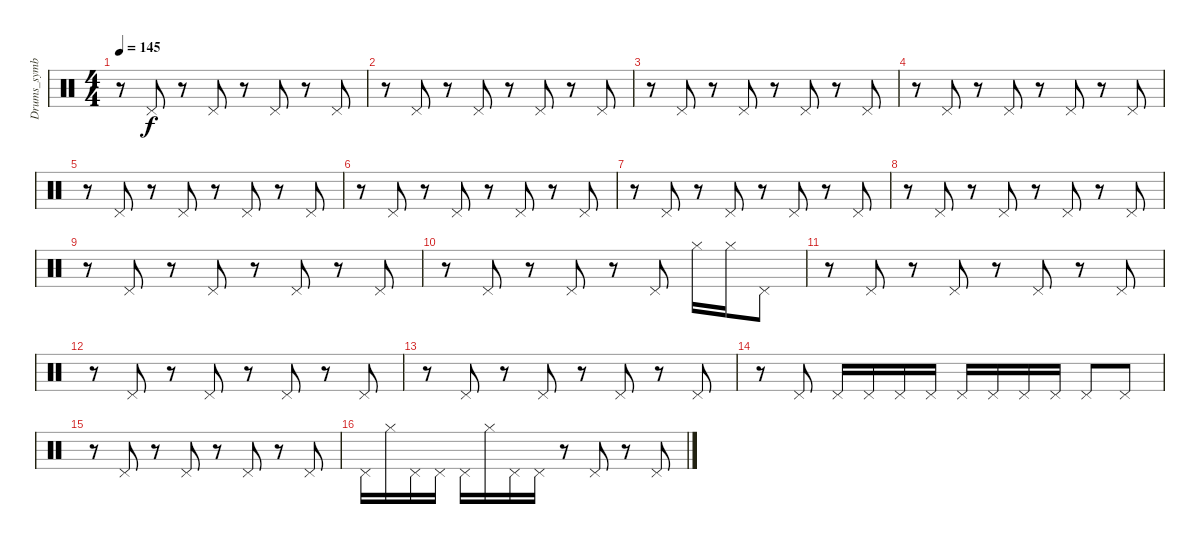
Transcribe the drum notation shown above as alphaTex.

\track ("Drums_symbal" "Drums_symb") {instrument percussion}
\staff {score}
\articulation defaults
\ts (4 4)
\tempo 145
\clef neutral
\ks c
r.8{dy f} "Pedal Hi-Hat (hit)".8 r.8 "Pedal Hi-Hat (hit)".8 r.8 "Pedal Hi-Hat (hit)".8 r.8 "Pedal Hi-Hat (hit)".8 |
r.8 "Pedal Hi-Hat (hit)".8 r.8 "Pedal Hi-Hat (hit)".8 r.8 "Pedal Hi-Hat (hit)".8 r.8 "Pedal Hi-Hat (hit)".8 |
r.8 "Pedal Hi-Hat (hit)".8 r.8 "Pedal Hi-Hat (hit)".8 r.8 "Pedal Hi-Hat (hit)".8 r.8 "Pedal Hi-Hat (hit)".8 |
r.8 "Pedal Hi-Hat (hit)".8 r.8 "Pedal Hi-Hat (hit)".8 r.8 "Pedal Hi-Hat (hit)".8 r.8 "Pedal Hi-Hat (hit)".8 |
r.8 "Pedal Hi-Hat (hit)".8 r.8 "Pedal Hi-Hat (hit)".8 r.8 "Pedal Hi-Hat (hit)".8 r.8 "Pedal Hi-Hat (hit)".8 |
r.8 "Pedal Hi-Hat (hit)".8 r.8 "Pedal Hi-Hat (hit)".8 r.8 "Pedal Hi-Hat (hit)".8 r.8 "Pedal Hi-Hat (hit)".8 |
r.8 "Pedal Hi-Hat (hit)".8 r.8 "Pedal Hi-Hat (hit)".8 r.8 "Pedal Hi-Hat (hit)".8 r.8 "Pedal Hi-Hat (hit)".8 |
r.8 "Pedal Hi-Hat (hit)".8 r.8 "Pedal Hi-Hat (hit)".8 r.8 "Pedal Hi-Hat (hit)".8 r.8 "Pedal Hi-Hat (hit)".8 |
r.8 "Pedal Hi-Hat (hit)".8 r.8 "Pedal Hi-Hat (hit)".8 r.8 "Pedal Hi-Hat (hit)".8 r.8 "Pedal Hi-Hat (hit)".8 |
r.8 "Pedal Hi-Hat (hit)".8 r.8 "Pedal Hi-Hat (hit)".8 r.8 "Pedal Hi-Hat (hit)".8 "Hi-Hat (closed)".16 "Hi-Hat (closed)".16 "Pedal Hi-Hat (hit)".8 |
r.8 "Pedal Hi-Hat (hit)".8 r.8 "Pedal Hi-Hat (hit)".8 r.8 "Pedal Hi-Hat (hit)".8 r.8 "Pedal Hi-Hat (hit)".8 |
r.8 "Pedal Hi-Hat (hit)".8 r.8 "Pedal Hi-Hat (hit)".8 r.8 "Pedal Hi-Hat (hit)".8 r.8 "Pedal Hi-Hat (hit)".8 |
r.8 "Pedal Hi-Hat (hit)".8 r.8 "Pedal Hi-Hat (hit)".8 r.8 "Pedal Hi-Hat (hit)".8 r.8 "Pedal Hi-Hat (hit)".8 |
r.8 "Pedal Hi-Hat (hit)".8 "Pedal Hi-Hat (hit)".16 "Pedal Hi-Hat (hit)".16 "Pedal Hi-Hat (hit)".16 "Pedal Hi-Hat (hit)".16 "Pedal Hi-Hat (hit)".16 "Pedal Hi-Hat (hit)".16 "Pedal Hi-Hat (hit)".16 "Pedal Hi-Hat (hit)".16 "Pedal Hi-Hat (hit)".8 "Pedal Hi-Hat (hit)".8 |
r.8 "Pedal Hi-Hat (hit)".8 r.8 "Pedal Hi-Hat (hit)".8 r.8 "Pedal Hi-Hat (hit)".8 r.8 "Pedal Hi-Hat (hit)".8 |
"Pedal Hi-Hat (hit)".16 "Hi-Hat (closed)".16 "Pedal Hi-Hat (hit)".16 "Pedal Hi-Hat (hit)".16 "Pedal Hi-Hat (hit)".16 "Hi-Hat (closed)".16 "Pedal Hi-Hat (hit)".16 "Pedal Hi-Hat (hit)".16 r.8 "Pedal Hi-Hat (hit)".8 r.8 "Pedal Hi-Hat (hit)".8
